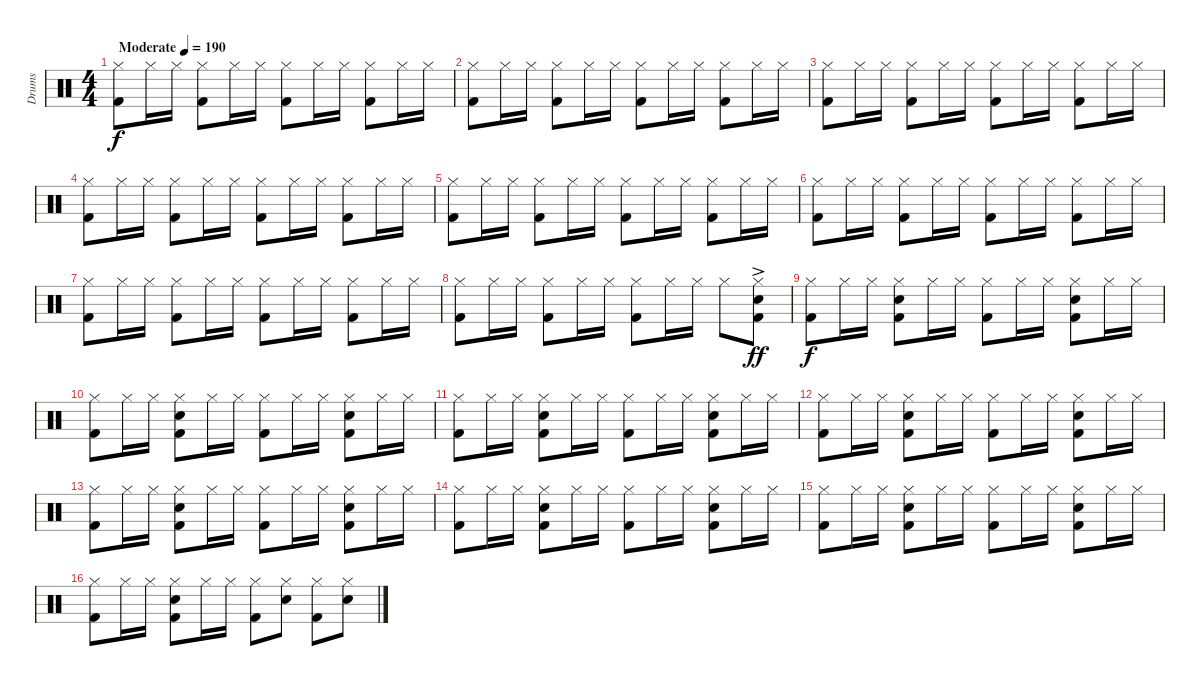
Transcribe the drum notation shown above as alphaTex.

\track ("Drums" "Drums") {instrument percussion}
\staff {score}
\articulation defaults
\ts (4 4)
\tempo (190 "Moderate")
\clef neutral
\ks c
("Kick (hit) 2" "Hi-Hat (closed)").8{dy f} "Hi-Hat (closed)".16 "Hi-Hat (closed)".16 ("Kick (hit) 2" "Hi-Hat (closed)").8 "Hi-Hat (closed)".16 "Hi-Hat (closed)".16 ("Kick (hit) 2" "Hi-Hat (closed)").8 "Hi-Hat (closed)".16 "Hi-Hat (closed)".16 ("Kick (hit) 2" "Hi-Hat (closed)").8 "Hi-Hat (closed)".16 "Hi-Hat (closed)".16 |
("Kick (hit) 2" "Hi-Hat (closed)").8 "Hi-Hat (closed)".16 "Hi-Hat (closed)".16 ("Kick (hit) 2" "Hi-Hat (closed)").8 "Hi-Hat (closed)".16 "Hi-Hat (closed)".16 ("Kick (hit) 2" "Hi-Hat (closed)").8 "Hi-Hat (closed)".16 "Hi-Hat (closed)".16 ("Kick (hit) 2" "Hi-Hat (closed)").8 "Hi-Hat (closed)".16 "Hi-Hat (closed)".16 |
("Kick (hit) 2" "Hi-Hat (closed)").8 "Hi-Hat (closed)".16 "Hi-Hat (closed)".16 ("Kick (hit) 2" "Hi-Hat (closed)").8 "Hi-Hat (closed)".16 "Hi-Hat (closed)".16 ("Kick (hit) 2" "Hi-Hat (closed)").8 "Hi-Hat (closed)".16 "Hi-Hat (closed)".16 ("Kick (hit) 2" "Hi-Hat (closed)").8 "Hi-Hat (closed)".16 "Hi-Hat (closed)".16 |
("Kick (hit) 2" "Hi-Hat (closed)").8 "Hi-Hat (closed)".16 "Hi-Hat (closed)".16 ("Kick (hit) 2" "Hi-Hat (closed)").8 "Hi-Hat (closed)".16 "Hi-Hat (closed)".16 ("Kick (hit) 2" "Hi-Hat (closed)").8 "Hi-Hat (closed)".16 "Hi-Hat (closed)".16 ("Kick (hit) 2" "Hi-Hat (closed)").8 "Hi-Hat (closed)".16 "Hi-Hat (closed)".16 |
("Kick (hit) 2" "Hi-Hat (closed)").8 "Hi-Hat (closed)".16 "Hi-Hat (closed)".16 ("Kick (hit) 2" "Hi-Hat (closed)").8 "Hi-Hat (closed)".16 "Hi-Hat (closed)".16 ("Kick (hit) 2" "Hi-Hat (closed)").8 "Hi-Hat (closed)".16 "Hi-Hat (closed)".16 ("Kick (hit) 2" "Hi-Hat (closed)").8 "Hi-Hat (closed)".16 "Hi-Hat (closed)".16 |
("Kick (hit) 2" "Hi-Hat (closed)").8 "Hi-Hat (closed)".16 "Hi-Hat (closed)".16 ("Kick (hit) 2" "Hi-Hat (closed)").8 "Hi-Hat (closed)".16 "Hi-Hat (closed)".16 ("Kick (hit) 2" "Hi-Hat (closed)").8 "Hi-Hat (closed)".16 "Hi-Hat (closed)".16 ("Kick (hit) 2" "Hi-Hat (closed)").8 "Hi-Hat (closed)".16 "Hi-Hat (closed)".16 |
("Kick (hit) 2" "Hi-Hat (closed)").8 "Hi-Hat (closed)".16 "Hi-Hat (closed)".16 ("Kick (hit) 2" "Hi-Hat (closed)").8 "Hi-Hat (closed)".16 "Hi-Hat (closed)".16 ("Kick (hit) 2" "Hi-Hat (closed)").8 "Hi-Hat (closed)".16 "Hi-Hat (closed)".16 ("Kick (hit) 2" "Hi-Hat (closed)").8 "Hi-Hat (closed)".16 "Hi-Hat (closed)".16 |
("Kick (hit) 2" "Hi-Hat (closed)").8 "Hi-Hat (closed)".16 "Hi-Hat (closed)".16 ("Kick (hit) 2" "Hi-Hat (closed)").8 "Hi-Hat (closed)".16 "Hi-Hat (closed)".16 ("Kick (hit) 2" "Hi-Hat (closed)").8 "Hi-Hat (closed)".16 "Hi-Hat (closed)".16 "Hi-Hat (closed)".8 ("Hi-Hat (closed)"{ac} "Snare (hit) 2" "Kick (hit) 2"{ac}).8{dy ff} |
("Kick (hit) 2" "Hi-Hat (closed)").8{dy f} "Hi-Hat (closed)".16 "Hi-Hat (closed)".16 ("Kick (hit) 2" "Snare (hit) 2" "Hi-Hat (closed)").8 "Hi-Hat (closed)".16 "Hi-Hat (closed)".16 ("Kick (hit) 2" "Hi-Hat (closed)").8 "Hi-Hat (closed)".16 "Hi-Hat (closed)".16 ("Kick (hit) 2" "Snare (hit) 2" "Hi-Hat (closed)").8 "Hi-Hat (closed)".16 "Hi-Hat (closed)".16 |
("Kick (hit) 2" "Hi-Hat (closed)").8 "Hi-Hat (closed)".16 "Hi-Hat (closed)".16 ("Kick (hit) 2" "Snare (hit) 2" "Hi-Hat (closed)").8 "Hi-Hat (closed)".16 "Hi-Hat (closed)".16 ("Kick (hit) 2" "Hi-Hat (closed)").8 "Hi-Hat (closed)".16 "Hi-Hat (closed)".16 ("Kick (hit) 2" "Snare (hit) 2" "Hi-Hat (closed)").8 "Hi-Hat (closed)".16 "Hi-Hat (closed)".16 |
("Kick (hit) 2" "Hi-Hat (closed)").8 "Hi-Hat (closed)".16 "Hi-Hat (closed)".16 ("Kick (hit) 2" "Snare (hit) 2" "Hi-Hat (closed)").8 "Hi-Hat (closed)".16 "Hi-Hat (closed)".16 ("Kick (hit) 2" "Hi-Hat (closed)").8 "Hi-Hat (closed)".16 "Hi-Hat (closed)".16 ("Kick (hit) 2" "Snare (hit) 2" "Hi-Hat (closed)").8 "Hi-Hat (closed)".16 "Hi-Hat (closed)".16 |
("Kick (hit) 2" "Hi-Hat (closed)").8 "Hi-Hat (closed)".16 "Hi-Hat (closed)".16 ("Kick (hit) 2" "Snare (hit) 2" "Hi-Hat (closed)").8 "Hi-Hat (closed)".16 "Hi-Hat (closed)".16 ("Kick (hit) 2" "Hi-Hat (closed)").8 "Hi-Hat (closed)".16 "Hi-Hat (closed)".16 ("Kick (hit) 2" "Snare (hit) 2" "Hi-Hat (closed)").8 "Hi-Hat (closed)".16 "Hi-Hat (closed)".16 |
("Kick (hit) 2" "Hi-Hat (closed)").8 "Hi-Hat (closed)".16 "Hi-Hat (closed)".16 ("Kick (hit) 2" "Snare (hit) 2" "Hi-Hat (closed)").8 "Hi-Hat (closed)".16 "Hi-Hat (closed)".16 ("Kick (hit) 2" "Hi-Hat (closed)").8 "Hi-Hat (closed)".16 "Hi-Hat (closed)".16 ("Kick (hit) 2" "Snare (hit) 2" "Hi-Hat (closed)").8 "Hi-Hat (closed)".16 "Hi-Hat (closed)".16 |
("Kick (hit) 2" "Hi-Hat (closed)").8 "Hi-Hat (closed)".16 "Hi-Hat (closed)".16 ("Kick (hit) 2" "Snare (hit) 2" "Hi-Hat (closed)").8 "Hi-Hat (closed)".16 "Hi-Hat (closed)".16 ("Kick (hit) 2" "Hi-Hat (closed)").8 "Hi-Hat (closed)".16 "Hi-Hat (closed)".16 ("Kick (hit) 2" "Snare (hit) 2" "Hi-Hat (closed)").8 "Hi-Hat (closed)".16 "Hi-Hat (closed)".16 |
("Kick (hit) 2" "Hi-Hat (closed)").8 "Hi-Hat (closed)".16 "Hi-Hat (closed)".16 ("Kick (hit) 2" "Snare (hit) 2" "Hi-Hat (closed)").8 "Hi-Hat (closed)".16 "Hi-Hat (closed)".16 ("Kick (hit) 2" "Hi-Hat (closed)").8 "Hi-Hat (closed)".16 "Hi-Hat (closed)".16 ("Kick (hit) 2" "Snare (hit) 2" "Hi-Hat (closed)").8 "Hi-Hat (closed)".16 "Hi-Hat (closed)".16 |
("Kick (hit) 2" "Hi-Hat (closed)").8 "Hi-Hat (closed)".16 "Hi-Hat (closed)".16 ("Kick (hit) 2" "Snare (hit) 2" "Hi-Hat (closed)").8 "Hi-Hat (closed)".16 "Hi-Hat (closed)".16 ("Kick (hit) 2" "Hi-Hat (closed)").8 ("Hi-Hat (closed)" "Snare (hit) 2").8 ("Kick (hit) 2" "Hi-Hat (closed)").8 ("Hi-Hat (closed)" "Snare (hit) 2").8
